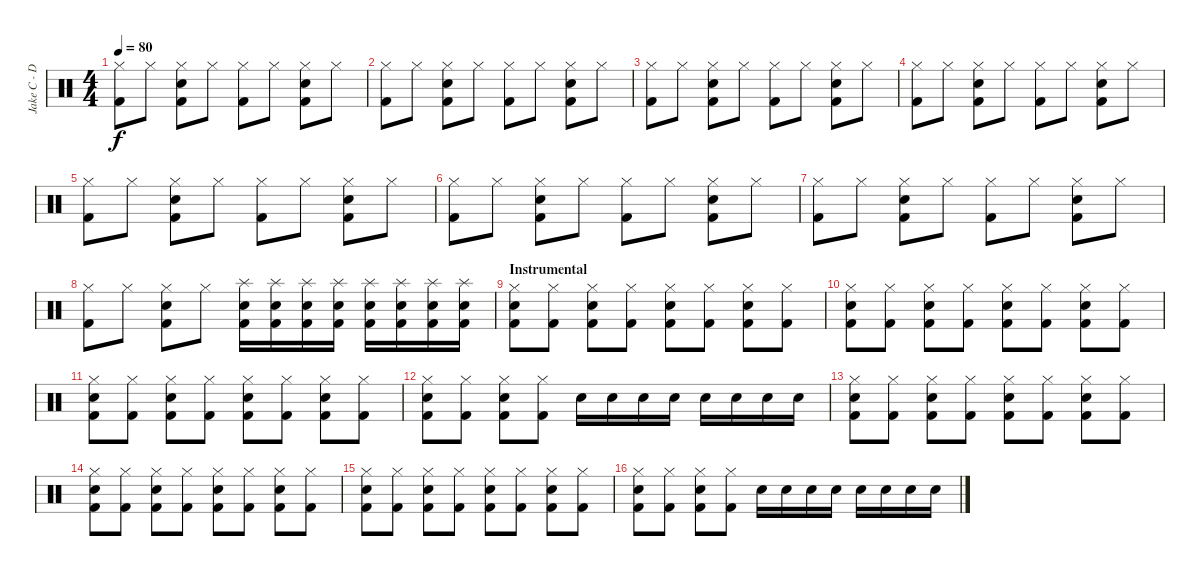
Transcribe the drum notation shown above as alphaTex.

\track ("Jake C - Drums" "Jake C - D") {instrument percussion}
\staff {score}
\articulation defaults
\ts (4 4)
\tempo 80
\clef neutral
\ks c
("Hi-Hat (closed)" "Kick (hit) 2").8{dy f} "Hi-Hat (closed)".8 ("Hi-Hat (closed)" "Electric Snare (hit)" "Kick (hit) 2").8 "Hi-Hat (closed)".8 ("Hi-Hat (closed)" "Kick (hit) 2").8 "Hi-Hat (closed)".8 ("Hi-Hat (closed)" "Electric Snare (hit)" "Kick (hit) 2").8 "Hi-Hat (closed)".8 |
("Hi-Hat (closed)" "Kick (hit) 2").8 "Hi-Hat (closed)".8 ("Hi-Hat (closed)" "Electric Snare (hit)" "Kick (hit) 2").8 "Hi-Hat (closed)".8 ("Hi-Hat (closed)" "Kick (hit) 2").8 "Hi-Hat (closed)".8 ("Hi-Hat (closed)" "Electric Snare (hit)" "Kick (hit) 2").8 "Hi-Hat (closed)".8 |
("Hi-Hat (closed)" "Kick (hit) 2").8 "Hi-Hat (closed)".8 ("Hi-Hat (closed)" "Electric Snare (hit)" "Kick (hit) 2").8 "Hi-Hat (closed)".8 ("Hi-Hat (closed)" "Kick (hit) 2").8 "Hi-Hat (closed)".8 ("Hi-Hat (closed)" "Electric Snare (hit)" "Kick (hit) 2").8 "Hi-Hat (closed)".8 |
("Hi-Hat (closed)" "Kick (hit) 2").8 "Hi-Hat (closed)".8 ("Hi-Hat (closed)" "Electric Snare (hit)" "Kick (hit) 2").8 "Hi-Hat (closed)".8 ("Hi-Hat (closed)" "Kick (hit) 2").8 "Hi-Hat (closed)".8 ("Hi-Hat (closed)" "Electric Snare (hit)" "Kick (hit) 2").8 "Hi-Hat (closed)".8 |
("Hi-Hat (closed)" "Kick (hit) 2").8 "Hi-Hat (closed)".8 ("Hi-Hat (closed)" "Electric Snare (hit)" "Kick (hit) 2").8 "Hi-Hat (closed)".8 ("Hi-Hat (closed)" "Kick (hit) 2").8 "Hi-Hat (closed)".8 ("Hi-Hat (closed)" "Electric Snare (hit)" "Kick (hit) 2").8 "Hi-Hat (closed)".8 |
("Hi-Hat (closed)" "Kick (hit) 2").8 "Hi-Hat (closed)".8 ("Hi-Hat (closed)" "Electric Snare (hit)" "Kick (hit) 2").8 "Hi-Hat (closed)".8 ("Hi-Hat (closed)" "Kick (hit) 2").8 "Hi-Hat (closed)".8 ("Hi-Hat (closed)" "Electric Snare (hit)" "Kick (hit) 2").8 "Hi-Hat (closed)".8 |
("Hi-Hat (closed)" "Kick (hit) 2").8 "Hi-Hat (closed)".8 ("Hi-Hat (closed)" "Electric Snare (hit)" "Kick (hit) 2").8 "Hi-Hat (closed)".8 ("Hi-Hat (closed)" "Kick (hit) 2").8 "Hi-Hat (closed)".8 ("Hi-Hat (closed)" "Electric Snare (hit)" "Kick (hit) 2").8 "Hi-Hat (closed)".8 |
("Hi-Hat (closed)" "Kick (hit) 2").8 "Hi-Hat (closed)".8 ("Hi-Hat (closed)" "Electric Snare (hit)" "Kick (hit) 2").8 "Hi-Hat (closed)".8 ("Splash (hit)" "Electric Snare (hit)" "Kick (hit) 2").16 ("Splash (hit)" "Electric Snare (hit)" "Kick (hit) 2").16 ("Splash (hit)" "Electric Snare (hit)" "Kick (hit) 2").16 ("Splash (hit)" "Electric Snare (hit)" "Kick (hit) 2").16 ("Splash (hit)" "Electric Snare (hit)" "Kick (hit) 2").16 ("Splash (hit)" "Electric Snare (hit)" "Kick (hit) 2").16 ("Splash (hit)" "Electric Snare (hit)" "Kick (hit) 2").16 ("Splash (hit)" "Electric Snare (hit)" "Kick (hit) 2").16 |
\section ("" "Instrumental")
("Hi-Hat (closed)" "Electric Snare (hit)" "Kick (hit) 2").8 ("Hi-Hat (closed)" "Kick (hit) 2").8 ("Hi-Hat (closed)" "Electric Snare (hit)" "Kick (hit) 2").8 ("Hi-Hat (closed)" "Kick (hit) 2").8 ("Hi-Hat (closed)" "Electric Snare (hit)" "Kick (hit) 2").8 ("Hi-Hat (closed)" "Kick (hit) 2").8 ("Hi-Hat (closed)" "Electric Snare (hit)" "Kick (hit) 2").8 ("Hi-Hat (closed)" "Kick (hit) 2").8 |
("Hi-Hat (closed)" "Electric Snare (hit)" "Kick (hit) 2").8 ("Hi-Hat (closed)" "Kick (hit) 2").8 ("Hi-Hat (closed)" "Electric Snare (hit)" "Kick (hit) 2").8 ("Hi-Hat (closed)" "Kick (hit) 2").8 ("Hi-Hat (closed)" "Electric Snare (hit)" "Kick (hit) 2").8 ("Hi-Hat (closed)" "Kick (hit) 2").8 ("Hi-Hat (closed)" "Electric Snare (hit)" "Kick (hit) 2").8 ("Hi-Hat (closed)" "Kick (hit) 2").8 |
("Hi-Hat (closed)" "Electric Snare (hit)" "Kick (hit) 2").8 ("Hi-Hat (closed)" "Kick (hit) 2").8 ("Hi-Hat (closed)" "Electric Snare (hit)" "Kick (hit) 2").8 ("Hi-Hat (closed)" "Kick (hit) 2").8 ("Hi-Hat (closed)" "Electric Snare (hit)" "Kick (hit) 2").8 ("Hi-Hat (closed)" "Kick (hit) 2").8 ("Hi-Hat (closed)" "Electric Snare (hit)" "Kick (hit) 2").8 ("Hi-Hat (closed)" "Kick (hit) 2").8 |
("Hi-Hat (closed)" "Electric Snare (hit)" "Kick (hit) 2").8 ("Hi-Hat (closed)" "Kick (hit) 2").8 ("Hi-Hat (closed)" "Electric Snare (hit)" "Kick (hit) 2").8 ("Hi-Hat (closed)" "Kick (hit) 2").8 "Electric Snare (hit)".16 "Electric Snare (hit)".16 "Electric Snare (hit)".16 "Electric Snare (hit)".16 "Electric Snare (hit)".16 "Electric Snare (hit)".16 "Electric Snare (hit)".16 "Electric Snare (hit)".16 |
("Hi-Hat (closed)" "Electric Snare (hit)" "Kick (hit) 2").8 ("Hi-Hat (closed)" "Kick (hit) 2").8 ("Hi-Hat (closed)" "Electric Snare (hit)" "Kick (hit) 2").8 ("Hi-Hat (closed)" "Kick (hit) 2").8 ("Hi-Hat (closed)" "Electric Snare (hit)" "Kick (hit) 2").8 ("Hi-Hat (closed)" "Kick (hit) 2").8 ("Hi-Hat (closed)" "Electric Snare (hit)" "Kick (hit) 2").8 ("Hi-Hat (closed)" "Kick (hit) 2").8 |
("Hi-Hat (closed)" "Electric Snare (hit)" "Kick (hit) 2").8 ("Hi-Hat (closed)" "Kick (hit) 2").8 ("Hi-Hat (closed)" "Electric Snare (hit)" "Kick (hit) 2").8 ("Hi-Hat (closed)" "Kick (hit) 2").8 ("Hi-Hat (closed)" "Electric Snare (hit)" "Kick (hit) 2").8 ("Hi-Hat (closed)" "Kick (hit) 2").8 ("Hi-Hat (closed)" "Electric Snare (hit)" "Kick (hit) 2").8 ("Hi-Hat (closed)" "Kick (hit) 2").8 |
("Hi-Hat (closed)" "Electric Snare (hit)" "Kick (hit) 2").8 ("Hi-Hat (closed)" "Kick (hit) 2").8 ("Hi-Hat (closed)" "Electric Snare (hit)" "Kick (hit) 2").8 ("Hi-Hat (closed)" "Kick (hit) 2").8 ("Hi-Hat (closed)" "Electric Snare (hit)" "Kick (hit) 2").8 ("Hi-Hat (closed)" "Kick (hit) 2").8 ("Hi-Hat (closed)" "Electric Snare (hit)" "Kick (hit) 2").8 ("Hi-Hat (closed)" "Kick (hit) 2").8 |
("Hi-Hat (closed)" "Electric Snare (hit)" "Kick (hit) 2").8 ("Hi-Hat (closed)" "Kick (hit) 2").8 ("Hi-Hat (closed)" "Electric Snare (hit)" "Kick (hit) 2").8 ("Hi-Hat (closed)" "Kick (hit) 2").8 "Electric Snare (hit)".16 "Electric Snare (hit)".16 "Electric Snare (hit)".16 "Electric Snare (hit)".16 "Electric Snare (hit)".16 "Electric Snare (hit)".16 "Electric Snare (hit)".16 "Electric Snare (hit)".16
